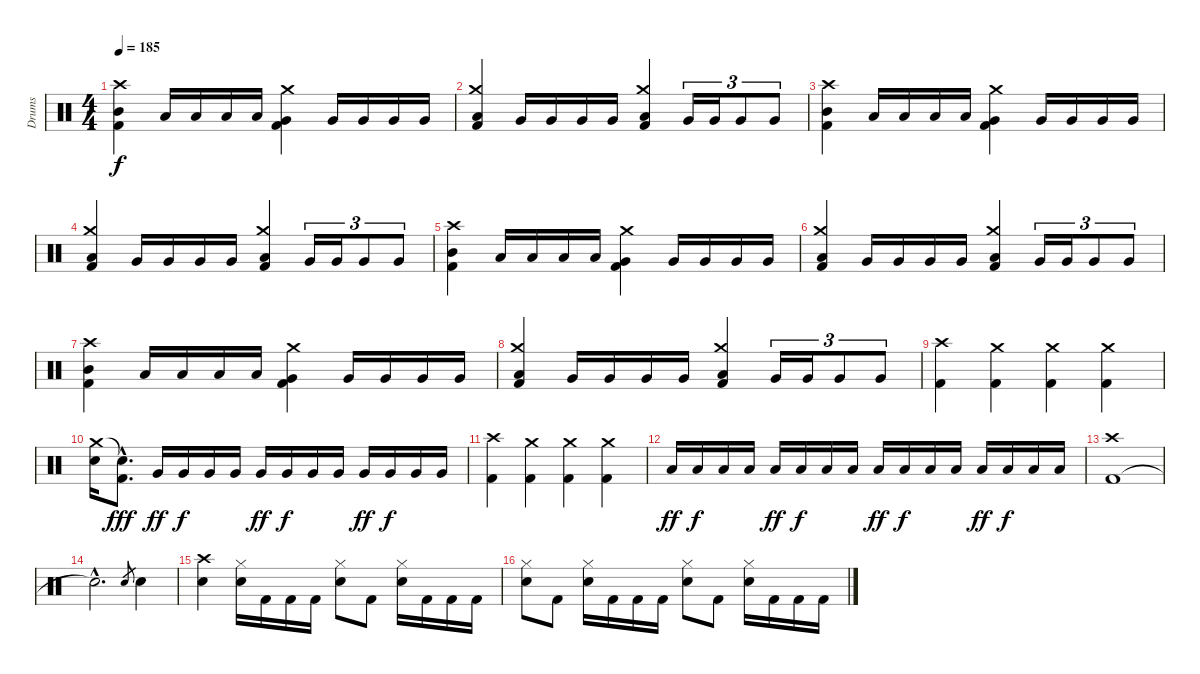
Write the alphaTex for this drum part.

\track ("Drums" "Drums") {instrument percussion}
\staff {score}
\articulation defaults
\ts (4 4)
\tempo 185
\clef neutral
\ks c
("Kick (hit) 2" "Mid Tom (hit)" "Crash high (hit)").4{dy f} "Low Tom (hit)".16 "Low Tom (hit)".16 "Low Tom (hit)".16 "Low Tom (hit)".16 ("Kick (hit) 2" "Very Low Tom (hit)" "Crash medium (hit)").4 "Very Low Tom (hit)".16 "Very Low Tom (hit)".16 "Very Low Tom (hit)".16 "Very Low Tom (hit)".16 |
("Kick (hit) 2" "Low Floor Tom (hit)" "Crash medium (hit)").4 "Very Low Tom (hit)".16 "Very Low Tom (hit)".16 "Very Low Tom (hit)".16 "Very Low Tom (hit)".16 ("Kick (hit) 2" "Low Floor Tom (hit)" "Crash medium (hit)").4 "Very Low Tom (hit)".16{tu (3 2)} "Very Low Tom (hit)".16{tu (3 2)} "Very Low Tom (hit)".8{tu (3 2)} "Very Low Tom (hit)".8{tu (3 2)} |
("Kick (hit) 2" "Mid Tom (hit)" "Crash high (hit)").4 "Low Tom (hit)".16 "Low Tom (hit)".16 "Low Tom (hit)".16 "Low Tom (hit)".16 ("Kick (hit) 2" "Very Low Tom (hit)" "Crash medium (hit)").4 "Very Low Tom (hit)".16 "Very Low Tom (hit)".16 "Very Low Tom (hit)".16 "Very Low Tom (hit)".16 |
("Kick (hit) 2" "Low Floor Tom (hit)" "Crash medium (hit)").4 "Very Low Tom (hit)".16 "Very Low Tom (hit)".16 "Very Low Tom (hit)".16 "Very Low Tom (hit)".16 ("Kick (hit) 2" "Low Floor Tom (hit)" "Crash medium (hit)").4 "Very Low Tom (hit)".16{tu (3 2)} "Very Low Tom (hit)".16{tu (3 2)} "Very Low Tom (hit)".8{tu (3 2)} "Very Low Tom (hit)".8{tu (3 2)} |
("Kick (hit) 2" "Mid Tom (hit)" "Crash high (hit)").4 "Low Tom (hit)".16 "Low Tom (hit)".16 "Low Tom (hit)".16 "Low Tom (hit)".16 ("Kick (hit) 2" "Very Low Tom (hit)" "Crash medium (hit)").4 "Very Low Tom (hit)".16 "Very Low Tom (hit)".16 "Very Low Tom (hit)".16 "Very Low Tom (hit)".16 |
("Kick (hit) 2" "Low Floor Tom (hit)" "Crash medium (hit)").4 "Very Low Tom (hit)".16 "Very Low Tom (hit)".16 "Very Low Tom (hit)".16 "Very Low Tom (hit)".16 ("Kick (hit) 2" "Low Floor Tom (hit)" "Crash medium (hit)").4 "Very Low Tom (hit)".16{tu (3 2)} "Very Low Tom (hit)".16{tu (3 2)} "Very Low Tom (hit)".8{tu (3 2)} "Very Low Tom (hit)".8{tu (3 2)} |
("Kick (hit) 2" "Mid Tom (hit)" "Crash high (hit)").4 "Low Tom (hit)".16 "Low Tom (hit)".16 "Low Tom (hit)".16 "Low Tom (hit)".16 ("Kick (hit) 2" "Very Low Tom (hit)" "Crash medium (hit)").4 "Very Low Tom (hit)".16 "Very Low Tom (hit)".16 "Very Low Tom (hit)".16 "Very Low Tom (hit)".16 |
("Kick (hit) 2" "Low Floor Tom (hit)" "Crash medium (hit)").4 "Very Low Tom (hit)".16 "Very Low Tom (hit)".16 "Very Low Tom (hit)".16 "Very Low Tom (hit)".16 ("Kick (hit) 2" "Low Floor Tom (hit)" "Crash medium (hit)").4 "Very Low Tom (hit)".16{tu (3 2)} "Very Low Tom (hit)".16{tu (3 2)} "Very Low Tom (hit)".8{tu (3 2)} "Very Low Tom (hit)".8{tu (3 2)} |
("Kick (hit) 2" "Crash high (hit)").4 ("Kick (hit) 2" "Crash medium (hit)").4 ("Kick (hit) 2" "Crash medium (hit)").4 ("Kick (hit) 2" "Crash medium (hit)").4 |
("Snare (hit) 2" "Crash medium (hit)").16 ("Kick (hit) 2"{hac} "Snare (hit)"{hac t}).8{d dy fff} "Very Low Tom (hit)".16{dy ff} "Very Low Tom (hit)".16{dy f} "Very Low Tom (hit)".16 "Very Low Tom (hit)".16 "Very Low Tom (hit)".16{dy ff} "Very Low Tom (hit)".16{dy f} "Very Low Tom (hit)".16 "Very Low Tom (hit)".16 "Very Low Tom (hit)".16{dy ff} "Very Low Tom (hit)".16{dy f} "Very Low Tom (hit)".16 "Very Low Tom (hit)".16 |
("Kick (hit) 2" "Crash high (hit)").4 ("Kick (hit) 2" "Crash medium (hit)").4 ("Kick (hit) 2" "Crash medium (hit)").4 ("Kick (hit) 2" "Crash medium (hit)").4 |
"Low Tom (hit)".16{dy ff} "Low Tom (hit)".16{dy f} "Low Tom (hit)".16 "Low Tom (hit)".16 "Low Tom (hit)".16{dy ff} "Low Tom (hit)".16{dy f} "Low Tom (hit)".16 "Low Tom (hit)".16 "Low Tom (hit)".16{dy ff} "Low Tom (hit)".16{dy f} "Low Tom (hit)".16 "Low Tom (hit)".16 "Low Tom (hit)".16{dy ff} "Low Tom (hit)".16{dy f} "Low Tom (hit)".16 "Low Tom (hit)".16 |
("Kick (hit) 2" "Crash high (hit)").1 |
"Snare (hit)"{hac t}.2{d} "Snare (hit) 2".8{gr} "Snare (hit) 2".4 |
("Snare (hit) 2" "Crash high (hit)").4 ("Snare (hit) 2" "Hi-Hat (closed)").16 "Kick (hit) 2".16 "Kick (hit) 2".16 "Kick (hit) 2".16 ("Snare (hit) 2" "Hi-Hat (closed)").8 "Kick (hit) 2".8 ("Snare (hit) 2" "Hi-Hat (closed)").16 "Kick (hit) 2".16 "Kick (hit) 2".16 "Kick (hit) 2".16 |
("Snare (hit) 2" "Hi-Hat (closed)").8 "Kick (hit) 2".8 ("Snare (hit) 2" "Hi-Hat (closed)").16 "Kick (hit) 2".16 "Kick (hit) 2".16 "Kick (hit) 2".16 ("Snare (hit) 2" "Hi-Hat (closed)").8 "Kick (hit) 2".8 ("Snare (hit) 2" "Hi-Hat (closed)").16 "Kick (hit) 2".16 "Kick (hit) 2".16 "Kick (hit) 2".16
